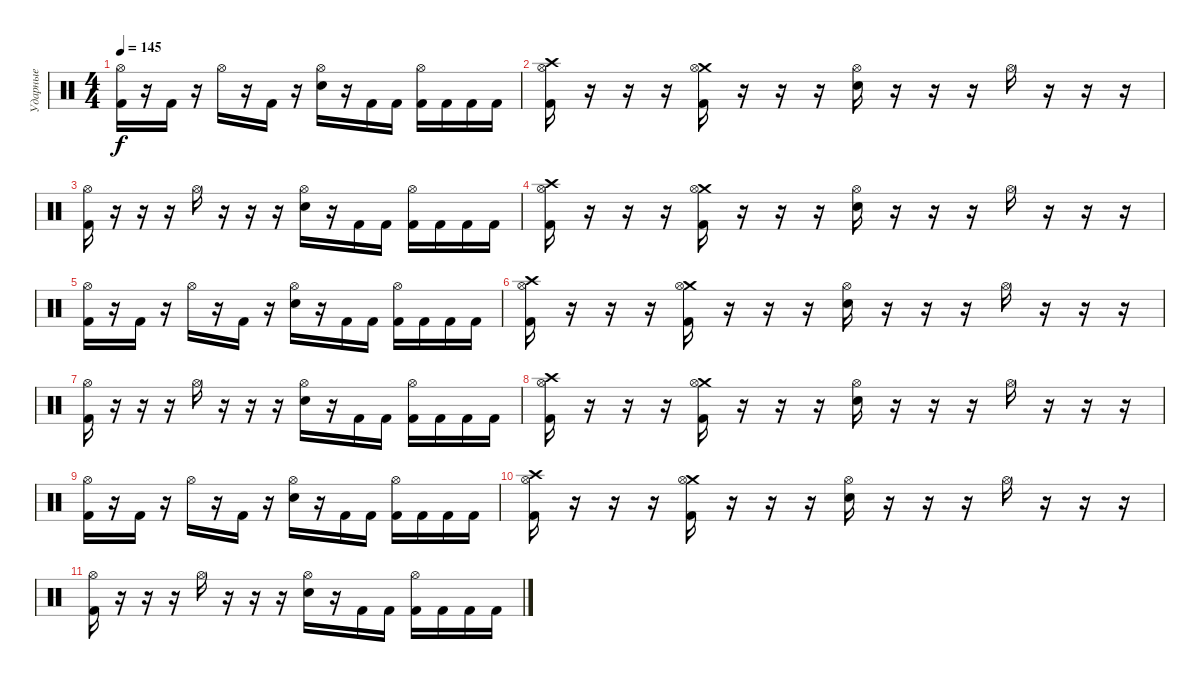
\track ("Ударные" "Ударные") {instrument percussion}
\staff {score}
\articulation defaults
\ts (4 4)
\tempo 145
\clef neutral
\ks c
("Hi-Hat (open)" "Kick (hit) 2").16{dy f} r.16 "Kick (hit) 2".16 r.16 "Hi-Hat (open)".16 r.16 "Kick (hit) 2".16 r.16 ("Hi-Hat (open)" "Electric Snare (hit)").16 r.16 "Kick (hit) 2".16 "Kick (hit) 2".16 ("Hi-Hat (open)" "Kick (hit) 2").16 "Kick (hit) 2".16 "Kick (hit) 2".16 "Kick (hit) 2".16 |
("Crash high (hit)" "Hi-Hat (open)" "Kick (hit) 2").16 r.16 r.16 r.16 ("Crash medium (hit)" "Hi-Hat (open)" "Kick (hit) 2").16 r.16 r.16 r.16 ("Hi-Hat (open)" "Electric Snare (hit)").16 r.16 r.16 r.16 "Hi-Hat (open)".16 r.16 r.16 r.16 |
("Hi-Hat (open)" "Kick (hit) 2").16 r.16 r.16 r.16 "Hi-Hat (open)".16 r.16 r.16 r.16 ("Hi-Hat (open)" "Electric Snare (hit)").16 r.16 "Kick (hit) 2".16 "Kick (hit) 2".16 ("Hi-Hat (open)" "Kick (hit) 2").16 "Kick (hit) 2".16 "Kick (hit) 2".16 "Kick (hit) 2".16 |
("Crash high (hit)" "Hi-Hat (open)" "Kick (hit) 2").16 r.16 r.16 r.16 ("Crash medium (hit)" "Hi-Hat (open)" "Kick (hit) 2").16 r.16 r.16 r.16 ("Hi-Hat (open)" "Electric Snare (hit)").16 r.16 r.16 r.16 "Hi-Hat (open)".16 r.16 r.16 r.16 |
("Hi-Hat (open)" "Kick (hit) 2").16 r.16 "Kick (hit) 2".16 r.16 "Hi-Hat (open)".16 r.16 "Kick (hit) 2".16 r.16 ("Hi-Hat (open)" "Electric Snare (hit)").16 r.16 "Kick (hit) 2".16 "Kick (hit) 2".16 ("Hi-Hat (open)" "Kick (hit) 2").16 "Kick (hit) 2".16 "Kick (hit) 2".16 "Kick (hit) 2".16 |
("Crash high (hit)" "Hi-Hat (open)" "Kick (hit) 2").16 r.16 r.16 r.16 ("Crash medium (hit)" "Hi-Hat (open)" "Kick (hit) 2").16 r.16 r.16 r.16 ("Hi-Hat (open)" "Electric Snare (hit)").16 r.16 r.16 r.16 "Hi-Hat (open)".16 r.16 r.16 r.16 |
("Hi-Hat (open)" "Kick (hit) 2").16 r.16 r.16 r.16 "Hi-Hat (open)".16 r.16 r.16 r.16 ("Hi-Hat (open)" "Electric Snare (hit)").16 r.16 "Kick (hit) 2".16 "Kick (hit) 2".16 ("Hi-Hat (open)" "Kick (hit) 2").16 "Kick (hit) 2".16 "Kick (hit) 2".16 "Kick (hit) 2".16 |
("Crash high (hit)" "Hi-Hat (open)" "Kick (hit) 2").16 r.16 r.16 r.16 ("Crash medium (hit)" "Hi-Hat (open)" "Kick (hit) 2").16 r.16 r.16 r.16 ("Hi-Hat (open)" "Electric Snare (hit)").16 r.16 r.16 r.16 "Hi-Hat (open)".16 r.16 r.16 r.16 |
("Hi-Hat (open)" "Kick (hit) 2").16 r.16 "Kick (hit) 2".16 r.16 "Hi-Hat (open)".16 r.16 "Kick (hit) 2".16 r.16 ("Hi-Hat (open)" "Electric Snare (hit)").16 r.16 "Kick (hit) 2".16 "Kick (hit) 2".16 ("Hi-Hat (open)" "Kick (hit) 2").16 "Kick (hit) 2".16 "Kick (hit) 2".16 "Kick (hit) 2".16 |
("Crash high (hit)" "Hi-Hat (open)" "Kick (hit) 2").16 r.16 r.16 r.16 ("Crash medium (hit)" "Hi-Hat (open)" "Kick (hit) 2").16 r.16 r.16 r.16 ("Hi-Hat (open)" "Electric Snare (hit)").16 r.16 r.16 r.16 "Hi-Hat (open)".16 r.16 r.16 r.16 |
("Hi-Hat (open)" "Kick (hit) 2").16 r.16 r.16 r.16 "Hi-Hat (open)".16 r.16 r.16 r.16 ("Hi-Hat (open)" "Electric Snare (hit)").16 r.16 "Kick (hit) 2".16 "Kick (hit) 2".16 ("Hi-Hat (open)" "Kick (hit) 2").16 "Kick (hit) 2".16 "Kick (hit) 2".16 "Kick (hit) 2".16
